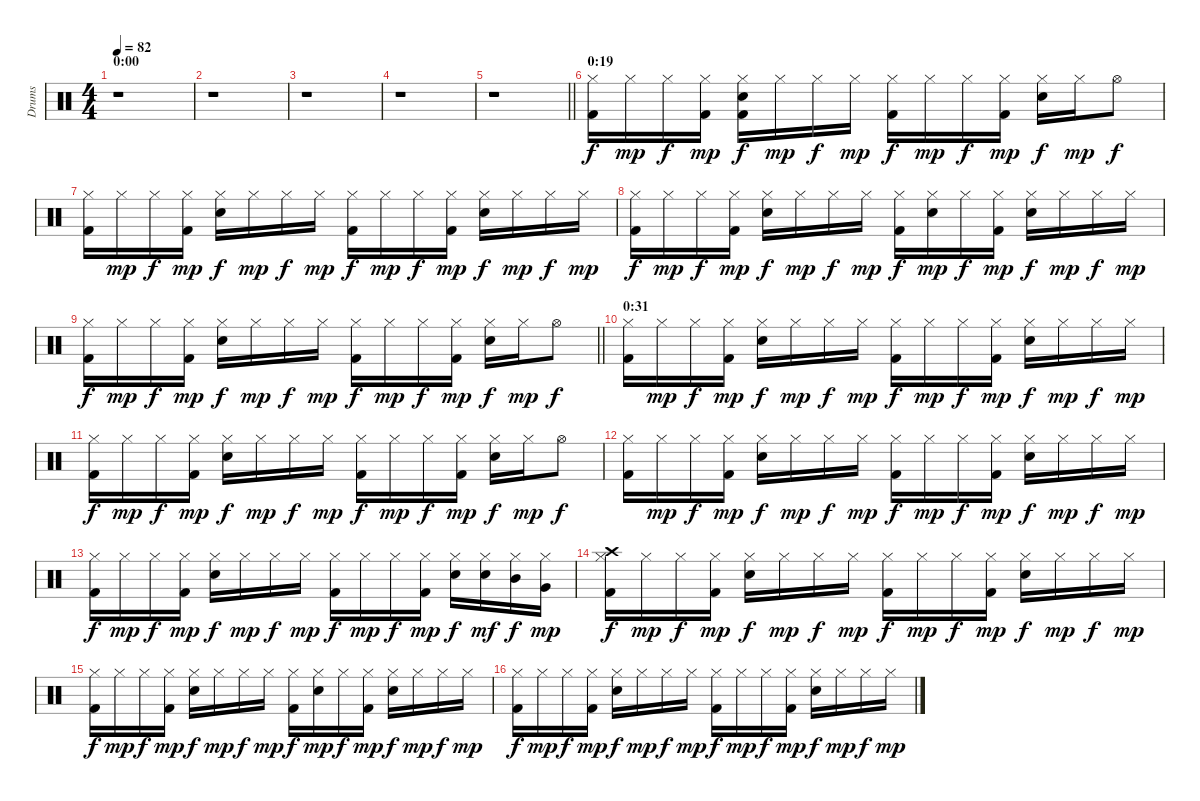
\track ("Drums" "Drums") {instrument percussion}
\staff {score}
\articulation defaults
\ts (4 4)
\section ("" "0:00")
\tempo 82
\clef neutral
\ks c
r.1{dy f} |
r.1 |
r.1 |
r.1 |
\barLineRight lightlight
r.1 |
\section ("" "0:19")
("Hi-Hat (closed)" "Kick (hit) 2").16 "Hi-Hat (closed)".16{dy mp} "Hi-Hat (closed)".16{dy f} ("Hi-Hat (closed)" "Kick (hit) 2").16{dy mp} ("Hi-Hat (closed)" "Snare (hit) 2" "Kick (hit) 2").16{dy f} "Hi-Hat (closed)".16{dy mp} "Hi-Hat (closed)".16{dy f} "Hi-Hat (closed)".16{dy mp} ("Hi-Hat (closed)" "Kick (hit) 2").16{dy f} "Hi-Hat (closed)".16{dy mp} "Hi-Hat (closed)".16{dy f} ("Hi-Hat (closed)" "Kick (hit) 2").16{dy mp} ("Hi-Hat (closed)" "Snare (hit) 2").16{dy f} "Hi-Hat (closed)".16{dy mp} "Hi-Hat (open)".8{dy f} |
("Hi-Hat (closed)" "Kick (hit) 2").16 "Hi-Hat (closed)".16{dy mp} "Hi-Hat (closed)".16{dy f} ("Hi-Hat (closed)" "Kick (hit) 2").16{dy mp} ("Hi-Hat (closed)" "Snare (hit) 2").16{dy f} "Hi-Hat (closed)".16{dy mp} "Hi-Hat (closed)".16{dy f} "Hi-Hat (closed)".16{dy mp} ("Hi-Hat (closed)" "Kick (hit) 2").16{dy f} "Hi-Hat (closed)".16{dy mp} "Hi-Hat (closed)".16{dy f} ("Hi-Hat (closed)" "Kick (hit) 2").16{dy mp} ("Hi-Hat (closed)" "Snare (hit) 2").16{dy f} "Hi-Hat (closed)".16{dy mp} "Hi-Hat (closed)".16{dy f} "Hi-Hat (closed)".16{dy mp} |
("Hi-Hat (closed)" "Kick (hit) 2").16{dy f} "Hi-Hat (closed)".16{dy mp} "Hi-Hat (closed)".16{dy f} ("Hi-Hat (closed)" "Kick (hit) 2").16{dy mp} ("Hi-Hat (closed)" "Snare (hit) 2").16{dy f} "Hi-Hat (closed)".16{dy mp} "Hi-Hat (closed)".16{dy f} "Hi-Hat (closed)".16{dy mp} ("Hi-Hat (closed)" "Kick (hit) 2").16{dy f} ("Hi-Hat (closed)" "Snare (hit) 2").16{dy mp} "Hi-Hat (closed)".16{dy f} ("Hi-Hat (closed)" "Kick (hit) 2").16{dy mp} ("Hi-Hat (closed)" "Snare (hit) 2").16{dy f} "Hi-Hat (closed)".16{dy mp} "Hi-Hat (closed)".16{dy f} "Hi-Hat (closed)".16{dy mp} |
\barLineRight lightlight
("Hi-Hat (closed)" "Kick (hit) 2").16{dy f} "Hi-Hat (closed)".16{dy mp} "Hi-Hat (closed)".16{dy f} ("Hi-Hat (closed)" "Kick (hit) 2").16{dy mp} ("Hi-Hat (closed)" "Snare (hit) 2").16{dy f} "Hi-Hat (closed)".16{dy mp} "Hi-Hat (closed)".16{dy f} "Hi-Hat (closed)".16{dy mp} ("Hi-Hat (closed)" "Kick (hit) 2").16{dy f} "Hi-Hat (closed)".16{dy mp} "Hi-Hat (closed)".16{dy f} ("Hi-Hat (closed)" "Kick (hit) 2").16{dy mp} ("Hi-Hat (closed)" "Snare (hit) 2").16{dy f} "Hi-Hat (closed)".16{dy mp} "Hi-Hat (open)".8{dy f} |
\section ("" "0:31")
("Hi-Hat (closed)" "Kick (hit) 2").16 "Hi-Hat (closed)".16{dy mp} "Hi-Hat (closed)".16{dy f} ("Hi-Hat (closed)" "Kick (hit) 2").16{dy mp} ("Hi-Hat (closed)" "Snare (hit) 2").16{dy f} "Hi-Hat (closed)".16{dy mp} "Hi-Hat (closed)".16{dy f} "Hi-Hat (closed)".16{dy mp} ("Hi-Hat (closed)" "Kick (hit) 2").16{dy f} "Hi-Hat (closed)".16{dy mp} "Hi-Hat (closed)".16{dy f} ("Hi-Hat (closed)" "Kick (hit) 2").16{dy mp} ("Hi-Hat (closed)" "Snare (hit) 2").16{dy f} "Hi-Hat (closed)".16{dy mp} "Hi-Hat (closed)".16{dy f} "Hi-Hat (closed)".16{dy mp} |
("Hi-Hat (closed)" "Kick (hit) 2").16{dy f} "Hi-Hat (closed)".16{dy mp} "Hi-Hat (closed)".16{dy f} ("Hi-Hat (closed)" "Kick (hit) 2").16{dy mp} ("Hi-Hat (closed)" "Snare (hit) 2").16{dy f} "Hi-Hat (closed)".16{dy mp} "Hi-Hat (closed)".16{dy f} "Hi-Hat (closed)".16{dy mp} ("Hi-Hat (closed)" "Kick (hit) 2").16{dy f} "Hi-Hat (closed)".16{dy mp} "Hi-Hat (closed)".16{dy f} ("Hi-Hat (closed)" "Kick (hit) 2").16{dy mp} ("Hi-Hat (closed)" "Snare (hit) 2").16{dy f} "Hi-Hat (closed)".16{dy mp} "Hi-Hat (open)".8{dy f} |
("Hi-Hat (closed)" "Kick (hit) 2").16 "Hi-Hat (closed)".16{dy mp} "Hi-Hat (closed)".16{dy f} ("Hi-Hat (closed)" "Kick (hit) 2").16{dy mp} ("Hi-Hat (closed)" "Snare (hit) 2").16{dy f} "Hi-Hat (closed)".16{dy mp} "Hi-Hat (closed)".16{dy f} "Hi-Hat (closed)".16{dy mp} ("Hi-Hat (closed)" "Kick (hit) 2").16{dy f} "Hi-Hat (closed)".16{dy mp} "Hi-Hat (closed)".16{dy f} ("Hi-Hat (closed)" "Kick (hit) 2").16{dy mp} ("Hi-Hat (closed)" "Snare (hit) 2").16{dy f} "Hi-Hat (closed)".16{dy mp} "Hi-Hat (closed)".16{dy f} "Hi-Hat (closed)".16{dy mp} |
("Hi-Hat (closed)" "Kick (hit) 2").16{dy f} "Hi-Hat (closed)".16{dy mp} "Hi-Hat (closed)".16{dy f} ("Hi-Hat (closed)" "Kick (hit) 2").16{dy mp} ("Hi-Hat (closed)" "Snare (hit) 2").16{dy f} "Hi-Hat (closed)".16{dy mp} "Hi-Hat (closed)".16{dy f} "Hi-Hat (closed)".16{dy mp} ("Hi-Hat (closed)" "Kick (hit) 2").16{dy f} "Hi-Hat (closed)".16{dy mp} "Hi-Hat (closed)".16{dy f} ("Hi-Hat (closed)" "Kick (hit) 2").16{dy mp} ("Hi-Hat (closed)" "Snare (hit) 2").16{dy f} ("Hi-Hat (closed)" "Snare (hit) 2").16{dy mf} ("Hi-Hat (closed)" "Mid Tom (hit)").16{dy f} ("Hi-Hat (closed)" "Very Low Tom (hit)").16{dy mp} |
("Hi-Hat (closed)" "Crash high (hit)" "Kick (hit) 2").16{dy f} "Hi-Hat (closed)".16{dy mp} "Hi-Hat (closed)".16{dy f} ("Hi-Hat (closed)" "Kick (hit) 2").16{dy mp} ("Hi-Hat (closed)" "Snare (hit) 2").16{dy f} "Hi-Hat (closed)".16{dy mp} "Hi-Hat (closed)".16{dy f} "Hi-Hat (closed)".16{dy mp} ("Hi-Hat (closed)" "Kick (hit) 2").16{dy f} "Hi-Hat (closed)".16{dy mp} "Hi-Hat (closed)".16{dy f} ("Hi-Hat (closed)" "Kick (hit) 2").16{dy mp} ("Hi-Hat (closed)" "Snare (hit) 2").16{dy f} "Hi-Hat (closed)".16{dy mp} "Hi-Hat (closed)".16{dy f} "Hi-Hat (closed)".16{dy mp} |
("Hi-Hat (closed)" "Kick (hit) 2").16{dy f} "Hi-Hat (closed)".16{dy mp} "Hi-Hat (closed)".16{dy f} ("Hi-Hat (closed)" "Kick (hit) 2").16{dy mp} ("Hi-Hat (closed)" "Snare (hit) 2").16{dy f} "Hi-Hat (closed)".16{dy mp} "Hi-Hat (closed)".16{dy f} "Hi-Hat (closed)".16{dy mp} ("Hi-Hat (closed)" "Kick (hit) 2").16{dy f} ("Hi-Hat (closed)" "Snare (hit) 2").16{dy mp} "Hi-Hat (closed)".16{dy f} ("Hi-Hat (closed)" "Kick (hit) 2").16{dy mp} ("Hi-Hat (closed)" "Snare (hit) 2").16{dy f} "Hi-Hat (closed)".16{dy mp} "Hi-Hat (closed)".16{dy f} "Hi-Hat (closed)".16{dy mp} |
("Hi-Hat (closed)" "Kick (hit) 2").16{dy f} "Hi-Hat (closed)".16{dy mp} "Hi-Hat (closed)".16{dy f} ("Hi-Hat (closed)" "Kick (hit) 2").16{dy mp} ("Hi-Hat (closed)" "Snare (hit) 2").16{dy f} "Hi-Hat (closed)".16{dy mp} "Hi-Hat (closed)".16{dy f} "Hi-Hat (closed)".16{dy mp} ("Hi-Hat (closed)" "Kick (hit) 2").16{dy f} "Hi-Hat (closed)".16{dy mp} "Hi-Hat (closed)".16{dy f} ("Hi-Hat (closed)" "Kick (hit) 2").16{dy mp} ("Hi-Hat (closed)" "Snare (hit) 2").16{dy f} "Hi-Hat (closed)".16{dy mp} "Hi-Hat (closed)".16{dy f} "Hi-Hat (closed)".16{dy mp}
